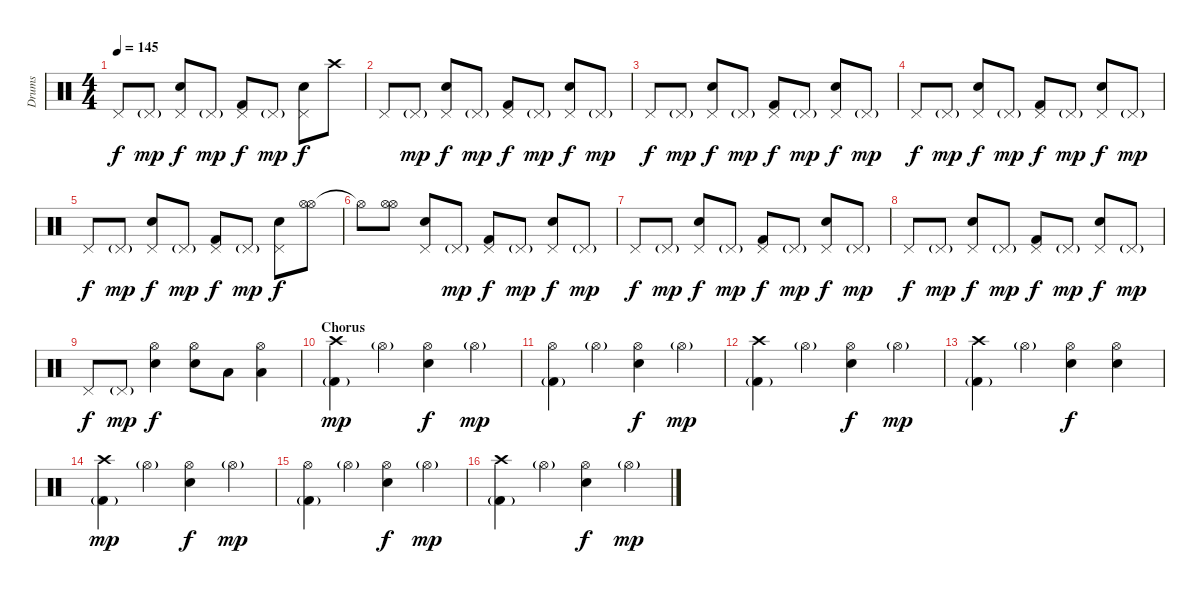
\track ("Drums" "Drums") {instrument percussion}
\staff {score}
\articulation defaults
\ts (4 4)
\tempo 145
\clef neutral
\ks c "Pedal Hi-Hat (hit)".8{dy f} "Pedal Hi-Hat (hit)"{g}.8{dy mp}
("Pedal Hi-Hat (hit)" "Electric Snare (hit)").8{dy f} "Pedal Hi-Hat (hit)"{g}.8{dy mp} ("Pedal Hi-Hat (hit)" "Kick (hit) 2").8{dy f} "Pedal Hi-Hat (hit)"{g}.8{dy mp} ("Pedal Hi-Hat (hit)" "Electric Snare (hit)").8{dy f} "Crash high (hit)".8 |
"Pedal Hi-Hat (hit)".8 "Pedal Hi-Hat (hit)"{g}.8{dy mp} ("Pedal Hi-Hat (hit)" "Electric Snare (hit)").8{dy f} "Pedal Hi-Hat (hit)"{g}.8{dy mp} ("Pedal Hi-Hat (hit)" "Kick (hit) 2").8{dy f} "Pedal Hi-Hat (hit)"{g}.8{dy mp} ("Pedal Hi-Hat (hit)" "Electric Snare (hit)").8{dy f} "Pedal Hi-Hat (hit)"{g}.8{dy mp} |
"Pedal Hi-Hat (hit)".8{dy f} "Pedal Hi-Hat (hit)"{g}.8{dy mp} ("Pedal Hi-Hat (hit)" "Electric Snare (hit)").8{dy f} "Pedal Hi-Hat (hit)"{g}.8{dy mp} ("Pedal Hi-Hat (hit)" "Kick (hit) 2").8{dy f} "Pedal Hi-Hat (hit)"{g}.8{dy mp} ("Pedal Hi-Hat (hit)" "Electric Snare (hit)").8{dy f} "Pedal Hi-Hat (hit)"{g}.8{dy mp} |
"Pedal Hi-Hat (hit)".8{dy f} "Pedal Hi-Hat (hit)"{g}.8{dy mp} ("Pedal Hi-Hat (hit)" "Electric Snare (hit)").8{dy f} "Pedal Hi-Hat (hit)"{g}.8{dy mp} ("Pedal Hi-Hat (hit)" "Kick (hit) 2").8{dy f} "Pedal Hi-Hat (hit)"{g}.8{dy mp} ("Pedal Hi-Hat (hit)" "Electric Snare (hit)").8{dy f} "Pedal Hi-Hat (hit)"{g}.8{dy mp} |
"Pedal Hi-Hat (hit)".8{dy f} "Pedal Hi-Hat (hit)"{g}.8{dy mp} ("Pedal Hi-Hat (hit)" "Electric Snare (hit)").8{dy f} "Pedal Hi-Hat (hit)"{g}.8{dy mp} ("Pedal Hi-Hat (hit)" "Kick (hit) 2").8{dy f} "Pedal Hi-Hat (hit)"{g}.8{dy mp} ("Pedal Hi-Hat (hit)" "Electric Snare (hit)").8{dy f} ("Hi-Hat (open)" "Hi-Hat (open)").8 |
"Hi-Hat (open)"{t}.8 ("Hi-Hat (open)" "Hi-Hat (open)").8 ("Pedal Hi-Hat (hit)" "Electric Snare (hit)").8 "Pedal Hi-Hat (hit)"{g}.8{dy mp} ("Pedal Hi-Hat (hit)" "Kick (hit) 2").8{dy f} "Pedal Hi-Hat (hit)"{g}.8{dy mp} ("Pedal Hi-Hat (hit)" "Electric Snare (hit)").8{dy f} "Pedal Hi-Hat (hit)"{g}.8{dy mp} |
"Pedal Hi-Hat (hit)".8{dy f} "Pedal Hi-Hat (hit)"{g}.8{dy mp} ("Pedal Hi-Hat (hit)" "Electric Snare (hit)").8{dy f} "Pedal Hi-Hat (hit)"{g}.8{dy mp} ("Pedal Hi-Hat (hit)" "Kick (hit) 2").8{dy f} "Pedal Hi-Hat (hit)"{g}.8{dy mp} ("Pedal Hi-Hat (hit)" "Electric Snare (hit)").8{dy f} "Pedal Hi-Hat (hit)"{g}.8{dy mp} |
"Pedal Hi-Hat (hit)".8{dy f} "Pedal Hi-Hat (hit)"{g}.8{dy mp} ("Pedal Hi-Hat (hit)" "Electric Snare (hit)").8{dy f} "Pedal Hi-Hat (hit)"{g}.8{dy mp} ("Pedal Hi-Hat (hit)" "Kick (hit) 2").8{dy f} "Pedal Hi-Hat (hit)"{g}.8{dy mp} ("Pedal Hi-Hat (hit)" "Electric Snare (hit)").8{dy f} "Pedal Hi-Hat (hit)"{g}.8{dy mp} |
"Pedal Hi-Hat (hit)".8{dy f} "Pedal Hi-Hat (hit)"{g}.8{dy mp} ("Hi-Hat (open)" "Electric Snare (hit)").4{dy f} ("Hi-Hat (open)" "Electric Snare (hit)").8 "Low Floor Tom (hit)".8 ("Hi-Hat (open)" "Low Floor Tom (hit)").4 |
\section ("" "Chorus")
("Crash high (hit)" "Kick (hit) 2"{g}).4{dy mp} "Hi-Hat (open)"{g}.4 ("Hi-Hat (open)" "Electric Snare (hit)").4{dy f} "Hi-Hat (open)"{g}.4{dy mp} |
("Hi-Hat (open)" "Kick (hit) 2"{g}).4 "Hi-Hat (open)"{g}.4 ("Hi-Hat (open)" "Electric Snare (hit)").4{dy f} "Hi-Hat (open)"{g}.4{dy mp} |
("Crash high (hit)" "Kick (hit) 2"{g}).4 "Hi-Hat (open)"{g}.4 ("Hi-Hat (open)" "Electric Snare (hit)").4{dy f} "Hi-Hat (open)"{g}.4{dy mp} |
("Crash high (hit)" "Kick (hit) 2"{g}).4 "Hi-Hat (open)"{g}.4 ("Hi-Hat (open)" "Electric Snare (hit)").4{dy f} ("Hi-Hat (open)" "Electric Snare (hit)").4 |
("Crash high (hit)" "Kick (hit) 2"{g}).4{dy mp} "Hi-Hat (open)"{g}.4 ("Hi-Hat (open)" "Electric Snare (hit)").4{dy f} "Hi-Hat (open)"{g}.4{dy mp} |
("Hi-Hat (open)" "Kick (hit) 2"{g}).4 "Hi-Hat (open)"{g}.4 ("Hi-Hat (open)" "Electric Snare (hit)").4{dy f} "Hi-Hat (open)"{g}.4{dy mp} |
("Crash high (hit)" "Kick (hit) 2"{g}).4 "Hi-Hat (open)"{g}.4 ("Hi-Hat (open)" "Electric Snare (hit)").4{dy f} "Hi-Hat (open)"{g}.4{dy mp}
